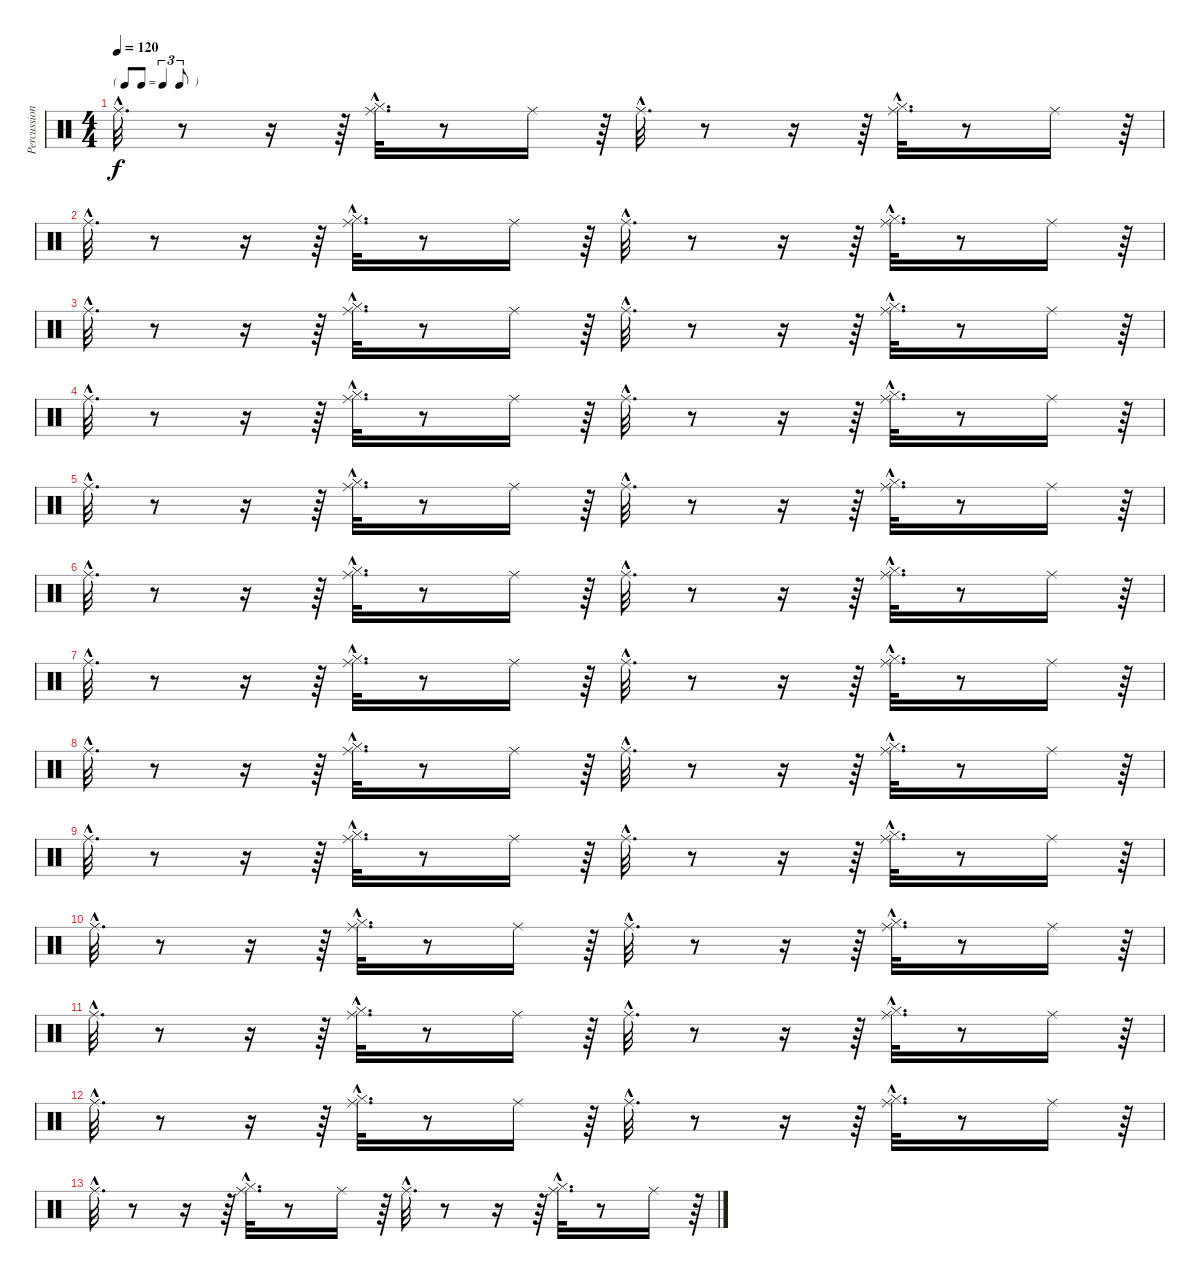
\track ("Percussions" "Percussion") {instrument percussion}
\staff {score}
\articulation defaults
\ts (4 4)
\tf triplet8th
\tempo 120
\clef neutral
\ks c "Ride (middle)"{hac}.32{d dy f}
r.8 r.16 r.64 ("Hi-Hat (closed)"{hac} "Ride (middle)"{hac}).32{d} r.8 "Ride (middle)".16 r.64 "Ride (middle)"{hac}.32{d} r.8 r.16 r.64 ("Hi-Hat (closed)"{hac} "Ride (middle)"{hac}).32{d} r.8 "Ride (middle)".16 r.64 |
"Ride (middle)"{hac}.32{d} r.8 r.16 r.64 ("Hi-Hat (closed)"{hac} "Ride (middle)"{hac}).32{d} r.8 "Ride (middle)".16 r.64 "Ride (middle)"{hac}.32{d} r.8 r.16 r.64 ("Hi-Hat (closed)"{hac} "Ride (middle)"{hac}).32{d} r.8 "Ride (middle)".16 r.64 |
"Ride (middle)"{hac}.32{d} r.8 r.16 r.64 ("Hi-Hat (closed)"{hac} "Ride (middle)"{hac}).32{d} r.8 "Ride (middle)".16 r.64 "Ride (middle)"{hac}.32{d} r.8 r.16 r.64 ("Hi-Hat (closed)"{hac} "Ride (middle)"{hac}).32{d} r.8 "Ride (middle)".16 r.64 |
"Ride (middle)"{hac}.32{d} r.8 r.16 r.64 ("Hi-Hat (closed)"{hac} "Ride (middle)"{hac}).32{d} r.8 "Ride (middle)".16 r.64 "Ride (middle)"{hac}.32{d} r.8 r.16 r.64 ("Hi-Hat (closed)"{hac} "Ride (middle)"{hac}).32{d} r.8 "Ride (middle)".16 r.64 |
"Ride (middle)"{hac}.32{d} r.8 r.16 r.64 ("Hi-Hat (closed)"{hac} "Ride (middle)"{hac}).32{d} r.8 "Ride (middle)".16 r.64 "Ride (middle)"{hac}.32{d} r.8 r.16 r.64 ("Hi-Hat (closed)"{hac} "Ride (middle)"{hac}).32{d} r.8 "Ride (middle)".16 r.64 |
"Ride (middle)"{hac}.32{d} r.8 r.16 r.64 ("Hi-Hat (closed)"{hac} "Ride (middle)"{hac}).32{d} r.8 "Ride (middle)".16 r.64 "Ride (middle)"{hac}.32{d} r.8 r.16 r.64 ("Hi-Hat (closed)"{hac} "Ride (middle)"{hac}).32{d} r.8 "Ride (middle)".16 r.64 |
"Ride (middle)"{hac}.32{d} r.8 r.16 r.64 ("Hi-Hat (closed)"{hac} "Ride (middle)"{hac}).32{d} r.8 "Ride (middle)".16 r.64 "Ride (middle)"{hac}.32{d} r.8 r.16 r.64 ("Hi-Hat (closed)"{hac} "Ride (middle)"{hac}).32{d} r.8 "Ride (middle)".16 r.64 |
"Ride (middle)"{hac}.32{d} r.8 r.16 r.64 ("Hi-Hat (closed)"{hac} "Ride (middle)"{hac}).32{d} r.8 "Ride (middle)".16 r.64 "Ride (middle)"{hac}.32{d} r.8 r.16 r.64 ("Hi-Hat (closed)"{hac} "Ride (middle)"{hac}).32{d} r.8 "Ride (middle)".16 r.64 |
"Ride (middle)"{hac}.32{d} r.8 r.16 r.64 ("Hi-Hat (closed)"{hac} "Ride (middle)"{hac}).32{d} r.8 "Ride (middle)".16 r.64 "Ride (middle)"{hac}.32{d} r.8 r.16 r.64 ("Hi-Hat (closed)"{hac} "Ride (middle)"{hac}).32{d} r.8 "Ride (middle)".16 r.64 |
"Ride (middle)"{hac}.32{d} r.8 r.16 r.64 ("Hi-Hat (closed)"{hac} "Ride (middle)"{hac}).32{d} r.8 "Ride (middle)".16 r.64 "Ride (middle)"{hac}.32{d} r.8 r.16 r.64 ("Hi-Hat (closed)"{hac} "Ride (middle)"{hac}).32{d} r.8 "Ride (middle)".16 r.64 |
"Ride (middle)"{hac}.32{d} r.8 r.16 r.64 ("Hi-Hat (closed)"{hac} "Ride (middle)"{hac}).32{d} r.8 "Ride (middle)".16 r.64 "Ride (middle)"{hac}.32{d} r.8 r.16 r.64 ("Hi-Hat (closed)"{hac} "Ride (middle)"{hac}).32{d} r.8 "Ride (middle)".16 r.64 |
"Ride (middle)"{hac}.32{d} r.8 r.16 r.64 ("Hi-Hat (closed)"{hac} "Ride (middle)"{hac}).32{d} r.8 "Ride (middle)".16 r.64 "Ride (middle)"{hac}.32{d} r.8 r.16 r.64 ("Hi-Hat (closed)"{hac} "Ride (middle)"{hac}).32{d} r.8 "Ride (middle)".16 r.64 |
"Ride (middle)"{hac}.32{d} r.8 r.16 r.64 ("Hi-Hat (closed)"{hac} "Ride (middle)"{hac}).32{d} r.8 "Ride (middle)".16 r.64 "Ride (middle)"{hac}.32{d} r.8 r.16 r.64 ("Hi-Hat (closed)"{hac} "Ride (middle)"{hac}).32{d} r.8 "Ride (middle)".16 r.64
